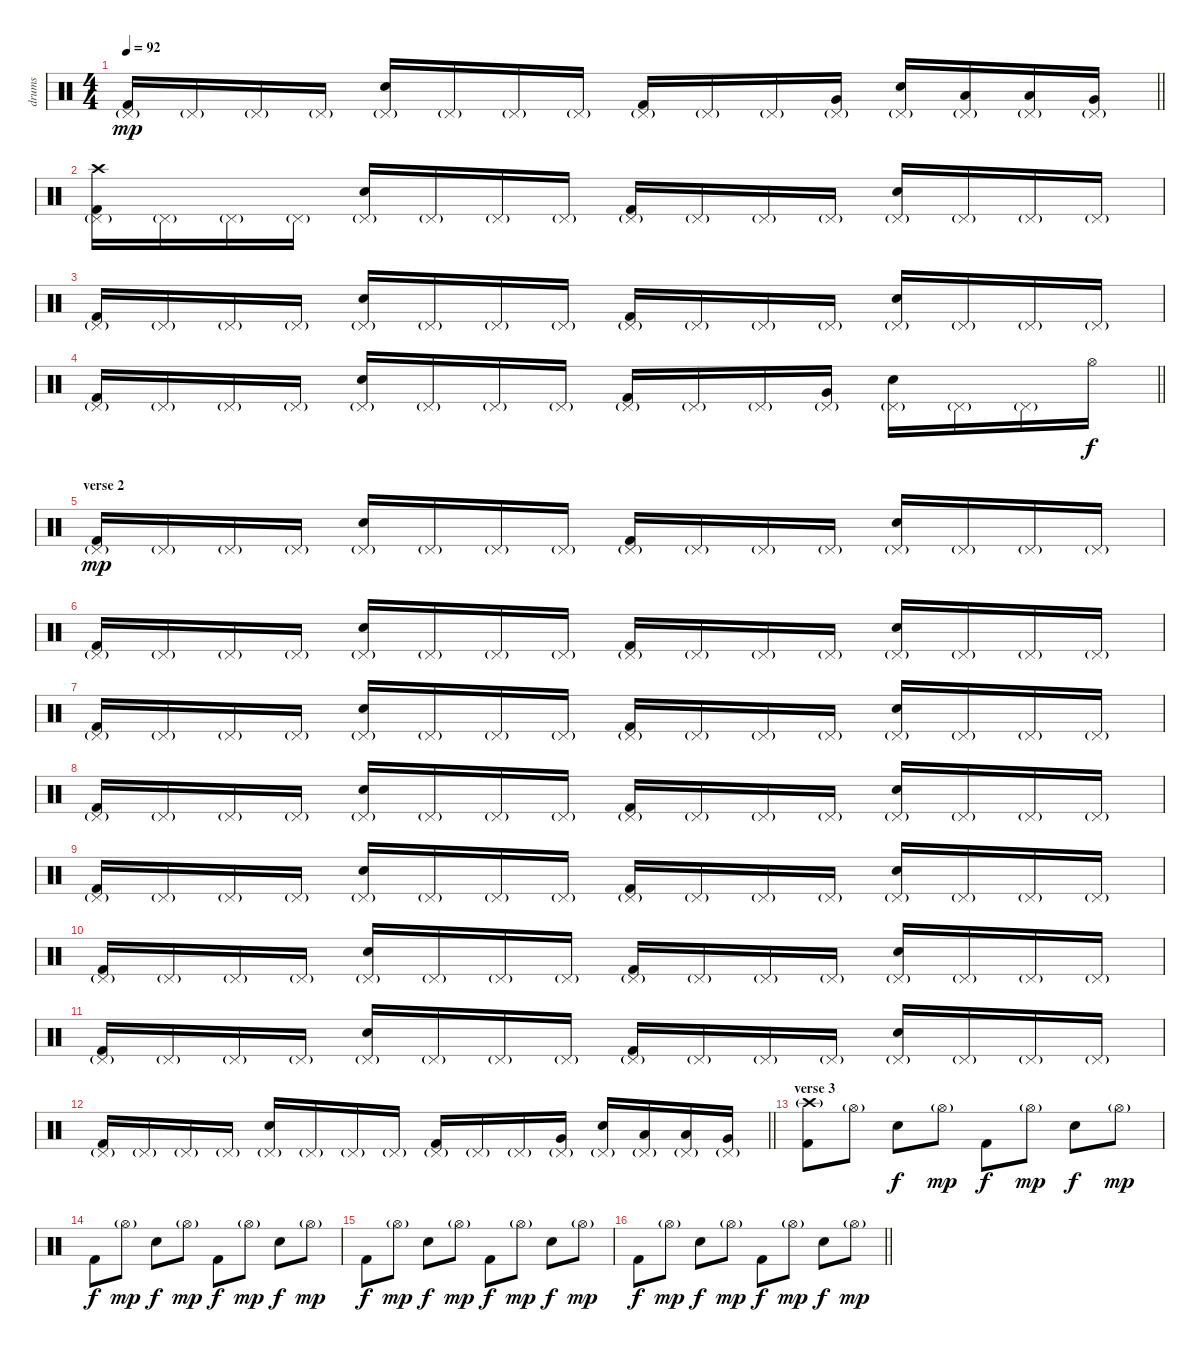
\track ("drums" "drums") {instrument percussion}
\staff {score}
\articulation defaults
\ts (4 4)
\tempo 92
\clef neutral
\barLineRight lightlight
\ks c
("Kick (hit) 2" "Pedal Hi-Hat (hit)"{g}).16{dy mp} "Pedal Hi-Hat (hit)"{g}.16 "Pedal Hi-Hat (hit)"{g}.16 "Pedal Hi-Hat (hit)"{g}.16 ("Electric Snare (hit)" "Pedal Hi-Hat (hit)"{g}).16 "Pedal Hi-Hat (hit)"{g}.16 "Pedal Hi-Hat (hit)"{g}.16 "Pedal Hi-Hat (hit)"{g}.16 ("Kick (hit) 2" "Pedal Hi-Hat (hit)"{g}).16 "Pedal Hi-Hat (hit)"{g}.16 "Pedal Hi-Hat (hit)"{g}.16 ("Very Low Tom (hit)" "Pedal Hi-Hat (hit)"{g}).16 ("Electric Snare (hit)" "Pedal Hi-Hat (hit)"{g}).16 ("Low Floor Tom (hit)" "Pedal Hi-Hat (hit)"{g}).16 ("Low Floor Tom (hit)" "Pedal Hi-Hat (hit)"{g}).16 ("Very Low Tom (hit)" "Pedal Hi-Hat (hit)"{g}).16 |
("Kick (hit) 2" "Pedal Hi-Hat (hit)"{g} "Crash high (hit)").16 "Pedal Hi-Hat (hit)"{g}.16 "Pedal Hi-Hat (hit)"{g}.16 "Pedal Hi-Hat (hit)"{g}.16 ("Electric Snare (hit)" "Pedal Hi-Hat (hit)"{g}).16 "Pedal Hi-Hat (hit)"{g}.16 "Pedal Hi-Hat (hit)"{g}.16 "Pedal Hi-Hat (hit)"{g}.16 ("Kick (hit) 2" "Pedal Hi-Hat (hit)"{g}).16 "Pedal Hi-Hat (hit)"{g}.16 "Pedal Hi-Hat (hit)"{g}.16 "Pedal Hi-Hat (hit)"{g}.16 ("Electric Snare (hit)" "Pedal Hi-Hat (hit)"{g}).16 "Pedal Hi-Hat (hit)"{g}.16 "Pedal Hi-Hat (hit)"{g}.16 "Pedal Hi-Hat (hit)"{g}.16 |
("Kick (hit) 2" "Pedal Hi-Hat (hit)"{g}).16 "Pedal Hi-Hat (hit)"{g}.16 "Pedal Hi-Hat (hit)"{g}.16 "Pedal Hi-Hat (hit)"{g}.16 ("Electric Snare (hit)" "Pedal Hi-Hat (hit)"{g}).16 "Pedal Hi-Hat (hit)"{g}.16 "Pedal Hi-Hat (hit)"{g}.16 "Pedal Hi-Hat (hit)"{g}.16 ("Kick (hit) 2" "Pedal Hi-Hat (hit)"{g}).16 "Pedal Hi-Hat (hit)"{g}.16 "Pedal Hi-Hat (hit)"{g}.16 "Pedal Hi-Hat (hit)"{g}.16 ("Electric Snare (hit)" "Pedal Hi-Hat (hit)"{g}).16 "Pedal Hi-Hat (hit)"{g}.16 "Pedal Hi-Hat (hit)"{g}.16 "Pedal Hi-Hat (hit)"{g}.16 |
\barLineRight lightlight
("Kick (hit) 2" "Pedal Hi-Hat (hit)"{g}).16 "Pedal Hi-Hat (hit)"{g}.16 "Pedal Hi-Hat (hit)"{g}.16 "Pedal Hi-Hat (hit)"{g}.16 ("Electric Snare (hit)" "Pedal Hi-Hat (hit)"{g}).16 "Pedal Hi-Hat (hit)"{g}.16 "Pedal Hi-Hat (hit)"{g}.16 "Pedal Hi-Hat (hit)"{g}.16 ("Kick (hit) 2" "Pedal Hi-Hat (hit)"{g}).16 "Pedal Hi-Hat (hit)"{g}.16 "Pedal Hi-Hat (hit)"{g}.16 ("Very Low Tom (hit)" "Pedal Hi-Hat (hit)"{g}).16 ("Electric Snare (hit)" "Pedal Hi-Hat (hit)"{g}).16 "Pedal Hi-Hat (hit)"{g}.16 "Pedal Hi-Hat (hit)"{g}.16 "Hi-Hat (open)".16{dy f} |
\section ("" "verse 2")
("Kick (hit) 2" "Pedal Hi-Hat (hit)"{g}).16{dy mp} "Pedal Hi-Hat (hit)"{g}.16 "Pedal Hi-Hat (hit)"{g}.16 "Pedal Hi-Hat (hit)"{g}.16 ("Electric Snare (hit)" "Pedal Hi-Hat (hit)"{g}).16 "Pedal Hi-Hat (hit)"{g}.16 "Pedal Hi-Hat (hit)"{g}.16 "Pedal Hi-Hat (hit)"{g}.16 ("Kick (hit) 2" "Pedal Hi-Hat (hit)"{g}).16 "Pedal Hi-Hat (hit)"{g}.16 "Pedal Hi-Hat (hit)"{g}.16 "Pedal Hi-Hat (hit)"{g}.16 ("Electric Snare (hit)" "Pedal Hi-Hat (hit)"{g}).16 "Pedal Hi-Hat (hit)"{g}.16 "Pedal Hi-Hat (hit)"{g}.16 "Pedal Hi-Hat (hit)"{g}.16 |
("Kick (hit) 2" "Pedal Hi-Hat (hit)"{g}).16 "Pedal Hi-Hat (hit)"{g}.16 "Pedal Hi-Hat (hit)"{g}.16 "Pedal Hi-Hat (hit)"{g}.16 ("Electric Snare (hit)" "Pedal Hi-Hat (hit)"{g}).16 "Pedal Hi-Hat (hit)"{g}.16 "Pedal Hi-Hat (hit)"{g}.16 "Pedal Hi-Hat (hit)"{g}.16 ("Kick (hit) 2" "Pedal Hi-Hat (hit)"{g}).16 "Pedal Hi-Hat (hit)"{g}.16 "Pedal Hi-Hat (hit)"{g}.16 "Pedal Hi-Hat (hit)"{g}.16 ("Electric Snare (hit)" "Pedal Hi-Hat (hit)"{g}).16 "Pedal Hi-Hat (hit)"{g}.16 "Pedal Hi-Hat (hit)"{g}.16 "Pedal Hi-Hat (hit)"{g}.16 |
("Kick (hit) 2" "Pedal Hi-Hat (hit)"{g}).16 "Pedal Hi-Hat (hit)"{g}.16 "Pedal Hi-Hat (hit)"{g}.16 "Pedal Hi-Hat (hit)"{g}.16 ("Electric Snare (hit)" "Pedal Hi-Hat (hit)"{g}).16 "Pedal Hi-Hat (hit)"{g}.16 "Pedal Hi-Hat (hit)"{g}.16 "Pedal Hi-Hat (hit)"{g}.16 ("Kick (hit) 2" "Pedal Hi-Hat (hit)"{g}).16 "Pedal Hi-Hat (hit)"{g}.16 "Pedal Hi-Hat (hit)"{g}.16 "Pedal Hi-Hat (hit)"{g}.16 ("Electric Snare (hit)" "Pedal Hi-Hat (hit)"{g}).16 "Pedal Hi-Hat (hit)"{g}.16 "Pedal Hi-Hat (hit)"{g}.16 "Pedal Hi-Hat (hit)"{g}.16 |
("Kick (hit) 2" "Pedal Hi-Hat (hit)"{g}).16 "Pedal Hi-Hat (hit)"{g}.16 "Pedal Hi-Hat (hit)"{g}.16 "Pedal Hi-Hat (hit)"{g}.16 ("Electric Snare (hit)" "Pedal Hi-Hat (hit)"{g}).16 "Pedal Hi-Hat (hit)"{g}.16 "Pedal Hi-Hat (hit)"{g}.16 "Pedal Hi-Hat (hit)"{g}.16 ("Kick (hit) 2" "Pedal Hi-Hat (hit)"{g}).16 "Pedal Hi-Hat (hit)"{g}.16 "Pedal Hi-Hat (hit)"{g}.16 "Pedal Hi-Hat (hit)"{g}.16 ("Electric Snare (hit)" "Pedal Hi-Hat (hit)"{g}).16 "Pedal Hi-Hat (hit)"{g}.16 "Pedal Hi-Hat (hit)"{g}.16 "Pedal Hi-Hat (hit)"{g}.16 |
("Kick (hit) 2" "Pedal Hi-Hat (hit)"{g}).16 "Pedal Hi-Hat (hit)"{g}.16 "Pedal Hi-Hat (hit)"{g}.16 "Pedal Hi-Hat (hit)"{g}.16 ("Electric Snare (hit)" "Pedal Hi-Hat (hit)"{g}).16 "Pedal Hi-Hat (hit)"{g}.16 "Pedal Hi-Hat (hit)"{g}.16 "Pedal Hi-Hat (hit)"{g}.16 ("Kick (hit) 2" "Pedal Hi-Hat (hit)"{g}).16 "Pedal Hi-Hat (hit)"{g}.16 "Pedal Hi-Hat (hit)"{g}.16 "Pedal Hi-Hat (hit)"{g}.16 ("Electric Snare (hit)" "Pedal Hi-Hat (hit)"{g}).16 "Pedal Hi-Hat (hit)"{g}.16 "Pedal Hi-Hat (hit)"{g}.16 "Pedal Hi-Hat (hit)"{g}.16 |
("Kick (hit) 2" "Pedal Hi-Hat (hit)"{g}).16 "Pedal Hi-Hat (hit)"{g}.16 "Pedal Hi-Hat (hit)"{g}.16 "Pedal Hi-Hat (hit)"{g}.16 ("Electric Snare (hit)" "Pedal Hi-Hat (hit)"{g}).16 "Pedal Hi-Hat (hit)"{g}.16 "Pedal Hi-Hat (hit)"{g}.16 "Pedal Hi-Hat (hit)"{g}.16 ("Kick (hit) 2" "Pedal Hi-Hat (hit)"{g}).16 "Pedal Hi-Hat (hit)"{g}.16 "Pedal Hi-Hat (hit)"{g}.16 "Pedal Hi-Hat (hit)"{g}.16 ("Electric Snare (hit)" "Pedal Hi-Hat (hit)"{g}).16 "Pedal Hi-Hat (hit)"{g}.16 "Pedal Hi-Hat (hit)"{g}.16 "Pedal Hi-Hat (hit)"{g}.16 |
("Kick (hit) 2" "Pedal Hi-Hat (hit)"{g}).16 "Pedal Hi-Hat (hit)"{g}.16 "Pedal Hi-Hat (hit)"{g}.16 "Pedal Hi-Hat (hit)"{g}.16 ("Electric Snare (hit)" "Pedal Hi-Hat (hit)"{g}).16 "Pedal Hi-Hat (hit)"{g}.16 "Pedal Hi-Hat (hit)"{g}.16 "Pedal Hi-Hat (hit)"{g}.16 ("Kick (hit) 2" "Pedal Hi-Hat (hit)"{g}).16 "Pedal Hi-Hat (hit)"{g}.16 "Pedal Hi-Hat (hit)"{g}.16 "Pedal Hi-Hat (hit)"{g}.16 ("Electric Snare (hit)" "Pedal Hi-Hat (hit)"{g}).16 "Pedal Hi-Hat (hit)"{g}.16 "Pedal Hi-Hat (hit)"{g}.16 "Pedal Hi-Hat (hit)"{g}.16 |
\barLineRight lightlight
("Kick (hit) 2" "Pedal Hi-Hat (hit)"{g}).16 "Pedal Hi-Hat (hit)"{g}.16 "Pedal Hi-Hat (hit)"{g}.16 "Pedal Hi-Hat (hit)"{g}.16 ("Electric Snare (hit)" "Pedal Hi-Hat (hit)"{g}).16 "Pedal Hi-Hat (hit)"{g}.16 "Pedal Hi-Hat (hit)"{g}.16 "Pedal Hi-Hat (hit)"{g}.16 ("Kick (hit) 2" "Pedal Hi-Hat (hit)"{g}).16 "Pedal Hi-Hat (hit)"{g}.16 "Pedal Hi-Hat (hit)"{g}.16 ("Very Low Tom (hit)" "Pedal Hi-Hat (hit)"{g}).16 ("Electric Snare (hit)" "Pedal Hi-Hat (hit)"{g}).16 ("Low Floor Tom (hit)" "Pedal Hi-Hat (hit)"{g}).16 ("Low Floor Tom (hit)" "Pedal Hi-Hat (hit)"{g}).16 ("Very Low Tom (hit)" "Pedal Hi-Hat (hit)"{g}).16 |
\section ("" "verse 3 ")
("Kick (hit) 2" "Crash high (hit)"{g}).8 "Hi-Hat (open)"{g}.8 "Electric Snare (hit)".8{dy f} "Hi-Hat (open)"{g}.8{dy mp} "Kick (hit) 2".8{dy f} "Hi-Hat (open)"{g}.8{dy mp} "Electric Snare (hit)".8{dy f} "Hi-Hat (open)"{g}.8{dy mp} |
"Kick (hit) 2".8{dy f} "Hi-Hat (open)"{g}.8{dy mp} "Electric Snare (hit)".8{dy f} "Hi-Hat (open)"{g}.8{dy mp} "Kick (hit) 2".8{dy f} "Hi-Hat (open)"{g}.8{dy mp} "Electric Snare (hit)".8{dy f} "Hi-Hat (open)"{g}.8{dy mp} |
"Kick (hit) 2".8{dy f} "Hi-Hat (open)"{g}.8{dy mp} "Electric Snare (hit)".8{dy f} "Hi-Hat (open)"{g}.8{dy mp} "Kick (hit) 2".8{dy f} "Hi-Hat (open)"{g}.8{dy mp} "Electric Snare (hit)".8{dy f} "Hi-Hat (open)"{g}.8{dy mp} |
\barLineRight lightlight "Kick (hit) 2".8{dy f} "Hi-Hat (open)"{g}.8{dy mp} "Electric Snare (hit)".8{dy f} "Hi-Hat (open)"{g}.8{dy mp} "Kick (hit) 2".8{dy f} "Hi-Hat (open)"{g}.8{dy mp} "Electric Snare (hit)".8{dy f} "Hi-Hat (open)"{g}.8{dy mp}
